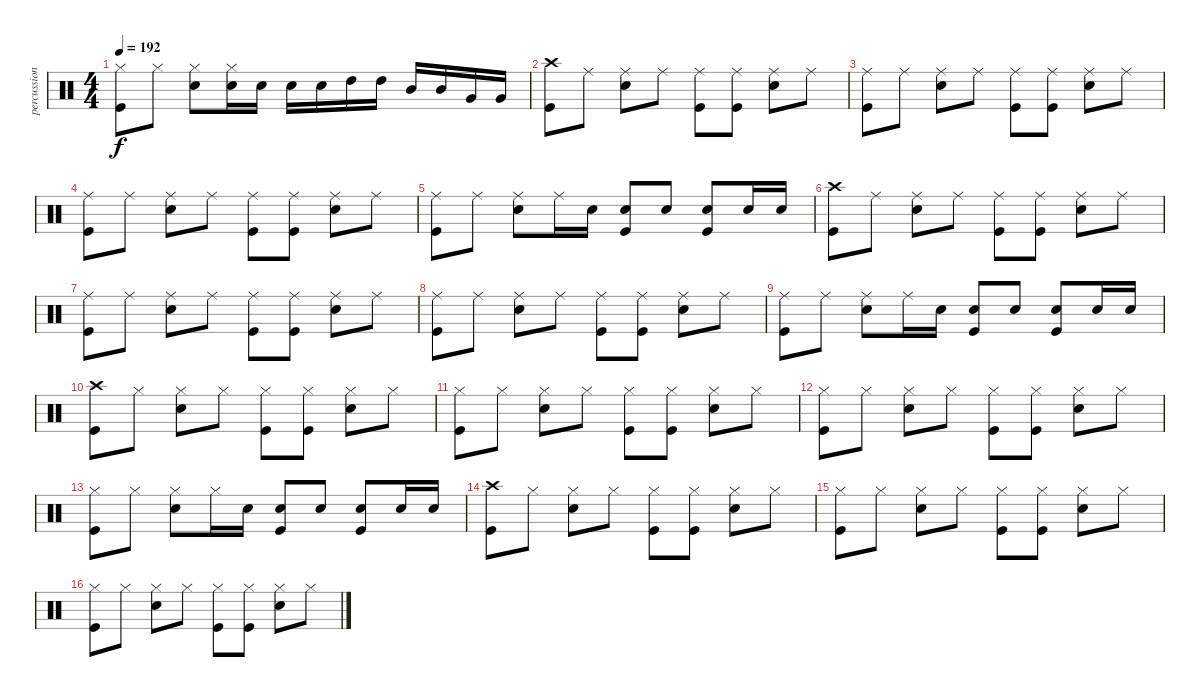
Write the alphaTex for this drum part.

\track ("percussion" "percussion") {instrument percussion}
\staff {score}
\articulation defaults
\ts (4 4)
\tempo 192
\clef neutral
\ks c
("Hi-Hat (closed)" "Kick (hit)").8{dy f} "Hi-Hat (closed)".8 ("Hi-Hat (closed)" "Snare (hit) 2").8 ("Hi-Hat (closed)" "Snare (hit) 2").16 "Snare (hit) 2".16 "Snare (hit) 2".16 "Snare (hit) 2".16 "High Tom (hit)".16 "High Tom (hit)".16 "Mid Tom (hit)".16 "Mid Tom (hit)".16 "Very Low Tom (hit)".16 "Very Low Tom (hit)".16 |
("Crash high (hit)" "Kick (hit)").8 "Ride (middle)".8 ("Ride (middle)" "Snare (hit) 2").8 "Ride (middle)".8 ("Ride (middle)" "Kick (hit)").8 ("Ride (middle)" "Kick (hit)").8 ("Ride (middle)" "Snare (hit) 2").8 "Ride (middle)".8 |
("Ride (middle)" "Kick (hit)").8 "Ride (middle)".8 ("Ride (middle)" "Snare (hit) 2").8 "Ride (middle)".8 ("Ride (middle)" "Kick (hit)").8 ("Ride (middle)" "Kick (hit)").8 ("Ride (middle)" "Snare (hit) 2").8 "Ride (middle)".8 |
("Ride (middle)" "Kick (hit)").8 "Ride (middle)".8 ("Ride (middle)" "Snare (hit) 2").8 "Ride (middle)".8 ("Ride (middle)" "Kick (hit)").8 ("Ride (middle)" "Kick (hit)").8 ("Ride (middle)" "Snare (hit) 2").8 "Ride (middle)".8 |
("Ride (middle)" "Kick (hit)").8 "Ride (middle)".8 ("Ride (middle)" "Snare (hit) 2").8 "Ride (middle)".16 "Snare (hit) 2".16 ("Snare (hit) 2" "Kick (hit)").8 "Snare (hit) 2".8 ("Snare (hit) 2" "Kick (hit)").8 "Snare (hit) 2".16 "Snare (hit) 2".16 |
("Crash high (hit)" "Kick (hit)").8 "Ride (middle)".8 ("Ride (middle)" "Snare (hit) 2").8 "Ride (middle)".8 ("Ride (middle)" "Kick (hit)").8 ("Ride (middle)" "Kick (hit)").8 ("Ride (middle)" "Snare (hit) 2").8 "Ride (middle)".8 |
("Ride (middle)" "Kick (hit)").8 "Ride (middle)".8 ("Ride (middle)" "Snare (hit) 2").8 "Ride (middle)".8 ("Ride (middle)" "Kick (hit)").8 ("Ride (middle)" "Kick (hit)").8 ("Ride (middle)" "Snare (hit) 2").8 "Ride (middle)".8 |
("Ride (middle)" "Kick (hit)").8 "Ride (middle)".8 ("Ride (middle)" "Snare (hit) 2").8 "Ride (middle)".8 ("Ride (middle)" "Kick (hit)").8 ("Ride (middle)" "Kick (hit)").8 ("Ride (middle)" "Snare (hit) 2").8 "Ride (middle)".8 |
("Ride (middle)" "Kick (hit)").8 "Ride (middle)".8 ("Ride (middle)" "Snare (hit) 2").8 "Ride (middle)".16 "Snare (hit) 2".16 ("Snare (hit) 2" "Kick (hit)").8 "Snare (hit) 2".8 ("Snare (hit) 2" "Kick (hit)").8 "Snare (hit) 2".16 "Snare (hit) 2".16 |
("Crash high (hit)" "Kick (hit)").8 "Hi-Hat (closed)".8 ("Hi-Hat (closed)" "Snare (hit) 2").8 "Hi-Hat (closed)".8 ("Hi-Hat (closed)" "Kick (hit)").8 ("Hi-Hat (closed)" "Kick (hit)").8 ("Hi-Hat (closed)" "Snare (hit) 2").8 "Hi-Hat (closed)".8 |
("Hi-Hat (closed)" "Kick (hit)").8 "Hi-Hat (closed)".8 ("Hi-Hat (closed)" "Snare (hit) 2").8 "Hi-Hat (closed)".8 ("Hi-Hat (closed)" "Kick (hit)").8 ("Hi-Hat (closed)" "Kick (hit)").8 ("Hi-Hat (closed)" "Snare (hit) 2").8 "Hi-Hat (closed)".8 |
("Hi-Hat (closed)" "Kick (hit)").8 "Hi-Hat (closed)".8 ("Hi-Hat (closed)" "Snare (hit) 2").8 "Hi-Hat (closed)".8 ("Hi-Hat (closed)" "Kick (hit)").8 ("Hi-Hat (closed)" "Kick (hit)").8 ("Hi-Hat (closed)" "Snare (hit) 2").8 "Hi-Hat (closed)".8 |
("Hi-Hat (closed)" "Kick (hit)").8 "Hi-Hat (closed)".8 ("Hi-Hat (closed)" "Snare (hit) 2").8 "Hi-Hat (closed)".16 "Snare (hit) 2".16 ("Snare (hit) 2" "Kick (hit)").8 "Snare (hit) 2".8 ("Snare (hit) 2" "Kick (hit)").8 "Snare (hit) 2".16 "Snare (hit) 2".16 |
("Crash high (hit)" "Kick (hit)").8 "Hi-Hat (closed)".8 ("Hi-Hat (closed)" "Snare (hit) 2").8 "Hi-Hat (closed)".8 ("Hi-Hat (closed)" "Kick (hit)").8 ("Hi-Hat (closed)" "Kick (hit)").8 ("Hi-Hat (closed)" "Snare (hit) 2").8 "Hi-Hat (closed)".8 |
("Hi-Hat (closed)" "Kick (hit)").8 "Hi-Hat (closed)".8 ("Hi-Hat (closed)" "Snare (hit) 2").8 "Hi-Hat (closed)".8 ("Hi-Hat (closed)" "Kick (hit)").8 ("Hi-Hat (closed)" "Kick (hit)").8 ("Hi-Hat (closed)" "Snare (hit) 2").8 "Hi-Hat (closed)".8 |
("Hi-Hat (closed)" "Kick (hit)").8 "Hi-Hat (closed)".8 ("Hi-Hat (closed)" "Snare (hit) 2").8 "Hi-Hat (closed)".8 ("Hi-Hat (closed)" "Kick (hit)").8 ("Hi-Hat (closed)" "Kick (hit)").8 ("Hi-Hat (closed)" "Snare (hit) 2").8 "Hi-Hat (closed)".8
